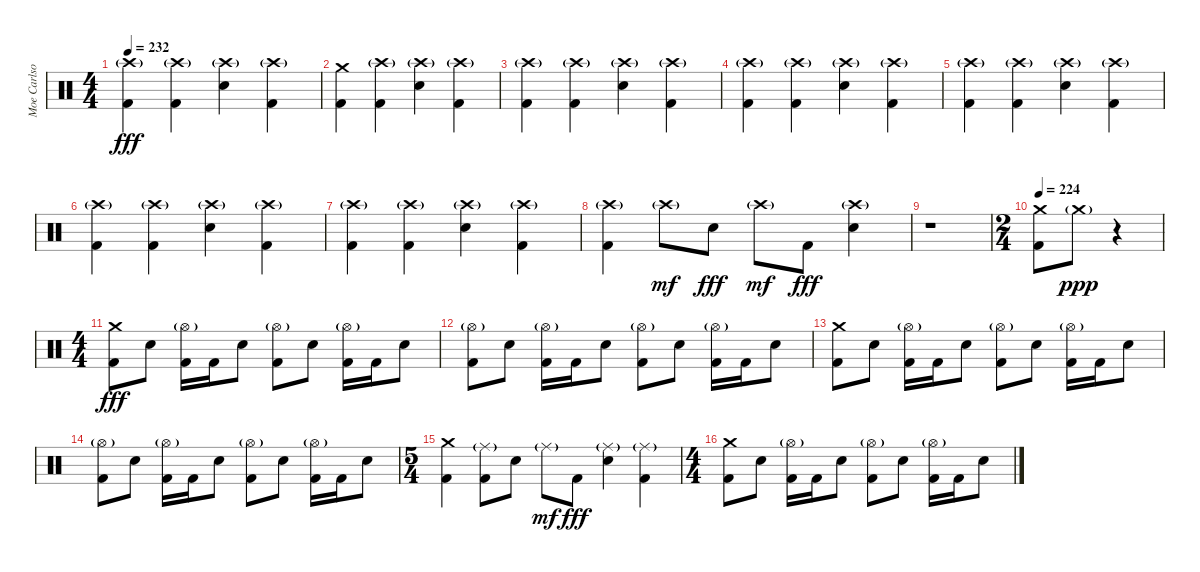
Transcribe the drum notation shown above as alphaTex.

\track ("Moe Carlson" "Moe Carlso") {instrument percussion}
\staff {score}
\articulation defaults
\ts (4 4)
\tempo 232
\clef neutral
\ks c
("Crash high (hit)"{g} "Kick (hit) 2").4{dy fff} ("Crash high (hit)"{g} "Kick (hit) 2").4 ("Crash high (hit)"{g} "Electric Snare (hit)").4 ("Crash high (hit)"{g} "Kick (hit) 2").4 |
("Crash medium (hit)" "Kick (hit) 2").4 ("Crash high (hit)"{g} "Kick (hit) 2").4 ("Crash high (hit)"{g} "Electric Snare (hit)").4 ("Crash high (hit)"{g} "Kick (hit) 2").4 |
("Crash high (hit)"{g} "Kick (hit) 2").4 ("Crash high (hit)"{g} "Kick (hit) 2").4 ("Crash high (hit)"{g} "Electric Snare (hit)").4 ("Crash high (hit)"{g} "Kick (hit) 2").4 |
("Crash high (hit)"{g} "Kick (hit) 2").4 ("Crash high (hit)"{g} "Kick (hit) 2").4 ("Crash high (hit)"{g} "Electric Snare (hit)").4 ("Crash high (hit)"{g} "Kick (hit) 2").4 |
("Crash high (hit)"{g} "Kick (hit) 2").4 ("Crash high (hit)"{g} "Kick (hit) 2").4 ("Crash high (hit)"{g} "Electric Snare (hit)").4 ("Crash high (hit)"{g} "Kick (hit) 2").4 |
("Crash high (hit)"{g} "Kick (hit) 2").4 ("Crash high (hit)"{g} "Kick (hit) 2").4 ("Crash high (hit)"{g} "Electric Snare (hit)").4 ("Crash high (hit)"{g} "Kick (hit) 2").4 |
("Crash high (hit)"{g} "Kick (hit) 2").4 ("Crash high (hit)"{g} "Kick (hit) 2").4 ("Crash high (hit)"{g} "Electric Snare (hit)").4 ("Crash high (hit)"{g} "Kick (hit) 2").4 |
("Crash high (hit)"{g} "Kick (hit) 2").4 "Crash high (hit)"{g}.8{dy mf} "Electric Snare (hit)".8{dy fff} "Crash high (hit)"{g}.8{dy mf} "Kick (hit) 2".8{dy fff} ("Crash high (hit)"{g} "Electric Snare (hit)").4 |
r.1 |
\ts (2 4)
\tempo 224
("Crash medium (hit)" "Kick (hit) 2").8 "Crash medium (hit)"{g}.8{dy ppp} r.4 |
\ts (4 4)
("Crash medium (hit)" "Kick (hit) 2").8{dy fff} "Electric Snare (hit)".8 ("Hi-Hat (open)"{g} "Kick (hit) 2").16 "Kick (hit) 2".16 "Electric Snare (hit)".8 ("Hi-Hat (open)"{g} "Kick (hit) 2").8 "Electric Snare (hit)".8 ("Hi-Hat (open)"{g} "Kick (hit) 2").16 "Kick (hit) 2".16 "Electric Snare (hit)".8 |
("Hi-Hat (open)"{g} "Kick (hit) 2").8 "Electric Snare (hit)".8 ("Hi-Hat (open)"{g} "Kick (hit) 2").16 "Kick (hit) 2".16 "Electric Snare (hit)".8 ("Hi-Hat (open)"{g} "Kick (hit) 2").8 "Electric Snare (hit)".8 ("Hi-Hat (open)"{g} "Kick (hit) 2").16 "Kick (hit) 2".16 "Electric Snare (hit)".8 |
("Crash medium (hit)" "Kick (hit) 2").8 "Electric Snare (hit)".8 ("Hi-Hat (open)"{g} "Kick (hit) 2").16 "Kick (hit) 2".16 "Electric Snare (hit)".8 ("Hi-Hat (open)"{g} "Kick (hit) 2").8 "Electric Snare (hit)".8 ("Hi-Hat (open)"{g} "Kick (hit) 2").16 "Kick (hit) 2".16 "Electric Snare (hit)".8 |
("Hi-Hat (open)"{g} "Kick (hit) 2").8 "Electric Snare (hit)".8 ("Hi-Hat (open)"{g} "Kick (hit) 2").16 "Kick (hit) 2".16 "Electric Snare (hit)".8 ("Hi-Hat (open)"{g} "Kick (hit) 2").8 "Electric Snare (hit)".8 ("Hi-Hat (open)"{g} "Kick (hit) 2").16 "Kick (hit) 2".16 "Electric Snare (hit)".8 |
\ts (5 4)
("Crash medium (hit)" "Kick (hit) 2").4 ("Ride (middle)"{g} "Kick (hit) 2").8 "Electric Snare (hit)".8 "Ride (middle)"{g}.8{dy mf} "Kick (hit) 2".8{dy fff} ("Ride (middle)"{g} "Electric Snare (hit)").4 ("Ride (middle)"{g} "Kick (hit) 2").4 |
\ts (4 4)
("Crash medium (hit)" "Kick (hit) 2").8 "Electric Snare (hit)".8 ("Hi-Hat (open)"{g} "Kick (hit) 2").16 "Kick (hit) 2".16 "Electric Snare (hit)".8 ("Hi-Hat (open)"{g} "Kick (hit) 2").8 "Electric Snare (hit)".8 ("Hi-Hat (open)"{g} "Kick (hit) 2").16 "Kick (hit) 2".16 "Electric Snare (hit)".8
